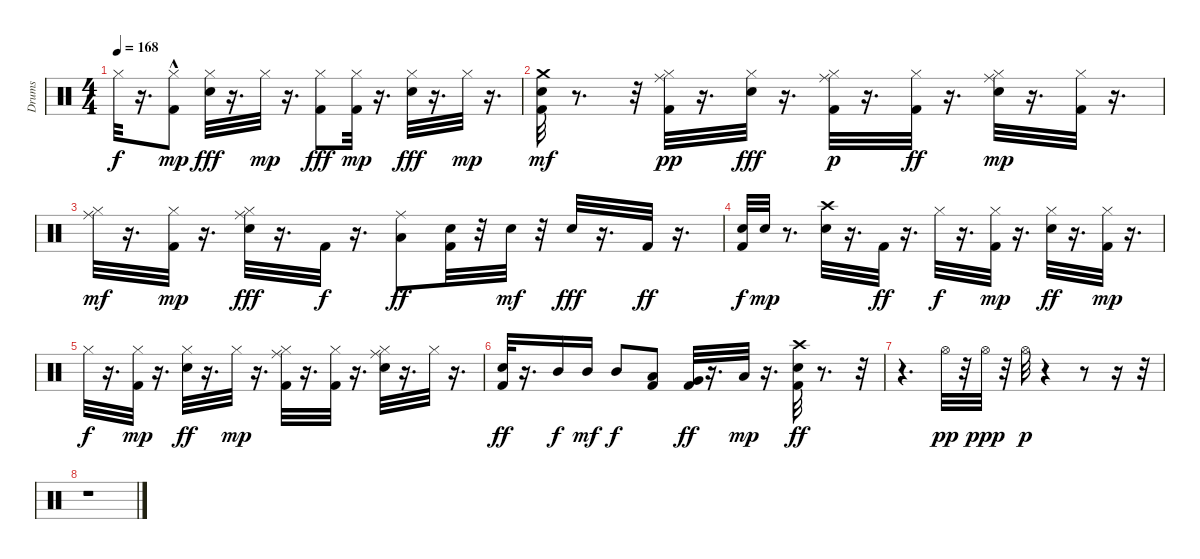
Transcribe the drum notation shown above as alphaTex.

\track ("Drums" "Drums") {instrument percussion}
\staff {score}
\articulation defaults
\ts (4 4)
\tempo 168
\clef neutral
\ks c "Hi-Hat (closed)".32{dy f}
r.16{d} ("Kick (hit) 2"{hac} "Hi-Hat (closed)").8{dy mp} ("Electric Snare (hit)" "Hi-Hat (closed)").32{dy fff} r.16{d} "Hi-Hat (closed)".32{dy mp} r.16{d} ("Hi-Hat (closed)" "Kick (hit) 2").8{dy fff} ("Kick (hit) 2" "Hi-Hat (closed)").32{dy mp} r.16{d} ("Electric Snare (hit)" "Hi-Hat (closed)").32{dy fff} r.16{d} "Hi-Hat (closed)".32{dy mp} r.16{d} |
("Kick (hit) 2" "Crash medium (hit)" "Electric Snare (hit)").32{dy mf} r.8{d} r.32 ("Hi-Hat (closed)" "Kick (hit) 2" "Ride (middle)").32{dy pp} r.16{d} ("Hi-Hat (closed)" "Electric Snare (hit)").32{dy fff} r.16{d} ("Hi-Hat (closed)" "Kick (hit) 2" "Ride (middle)").32{dy p} r.16{d} ("Hi-Hat (closed)" "Kick (hit) 2").32{dy ff} r.16{d} ("Hi-Hat (closed)" "Electric Snare (hit)" "Ride (middle)").32{dy mp} r.16{d} ("Hi-Hat (closed)" "Kick (hit) 2").32 r.16{d} |
("Hi-Hat (closed)" "Ride (middle)").32{dy mf} r.16{d} ("Kick (hit) 2" "Hi-Hat (closed)").32{dy mp} r.16{d} ("Electric Snare (hit)" "Hi-Hat (closed)" "Ride (middle)").32{dy fff} r.16{d} "Kick (hit) 2".32{dy f} r.16{d} ("Ride (middle)" "Low Tom (hit)").8{dy ff} ("Kick (hit) 2" "Electric Snare (hit)").32 r.32 "Electric Snare (hit)".32{dy mf} r.32 "Electric Snare (hit)".32{dy fff} r.16{d} "Kick (hit) 2".32{dy ff} r.16{d} |
("Kick (hit) 2" "Electric Snare (hit)").32{dy f} "Electric Snare (hit)".32{dy mp} r.8{d} ("Electric Snare (hit)" "Crash high (hit)").32 r.16{d} "Kick (hit) 2".32{dy ff} r.16{d} "Hi-Hat (closed)".32{dy f} r.16{d} ("Hi-Hat (closed)" "Kick (hit) 2").32{dy mp} r.16{d} ("Electric Snare (hit)" "Hi-Hat (closed)").32{dy ff} r.16{d} ("Hi-Hat (closed)" "Kick (hit) 2").32{dy mp} r.16{d} |
"Hi-Hat (closed)".32{dy f} r.16{d} ("Hi-Hat (closed)" "Kick (hit) 2").32{dy mp} r.16{d} ("Electric Snare (hit)" "Hi-Hat (closed)").32{dy ff} r.16{d} "Hi-Hat (closed)".32{dy mp} r.16{d} ("Hi-Hat (closed)" "Kick (hit) 2" "Ride (middle)").32 r.16{d} ("Hi-Hat (closed)" "Kick (hit) 2").32 r.16{d} ("Electric Snare (hit)" "Hi-Hat (closed)" "Ride (middle)").32 r.16{d} "Hi-Hat (closed)".32 r.16{d} |
("Electric Snare (hit)" "Kick (hit) 2").32{dy ff} r.16{d} "Mid Tom (hit)".16{dy f} "Mid Tom (hit)".16{dy mf} "Mid Tom (hit)".8{dy f} ("Kick (hit) 2" "Low Tom (hit)").8 ("Very Low Tom (hit)" "Kick (hit) 2").32{dy ff} r.16{d} "Low Floor Tom (hit)".32{dy mp} r.16{d} ("Crash high (hit)" "Electric Snare (hit)" "Kick (hit) 2").32{dy ff} r.8{d} r.32 |
r.4{d} "Hi-Hat (open)".32{dy pp} r.32 "Hi-Hat (open)".32{dy ppp} r.32 "Hi-Hat (open)".32{dy p} r.4 r.8 r.16 r.32 |
r.1
